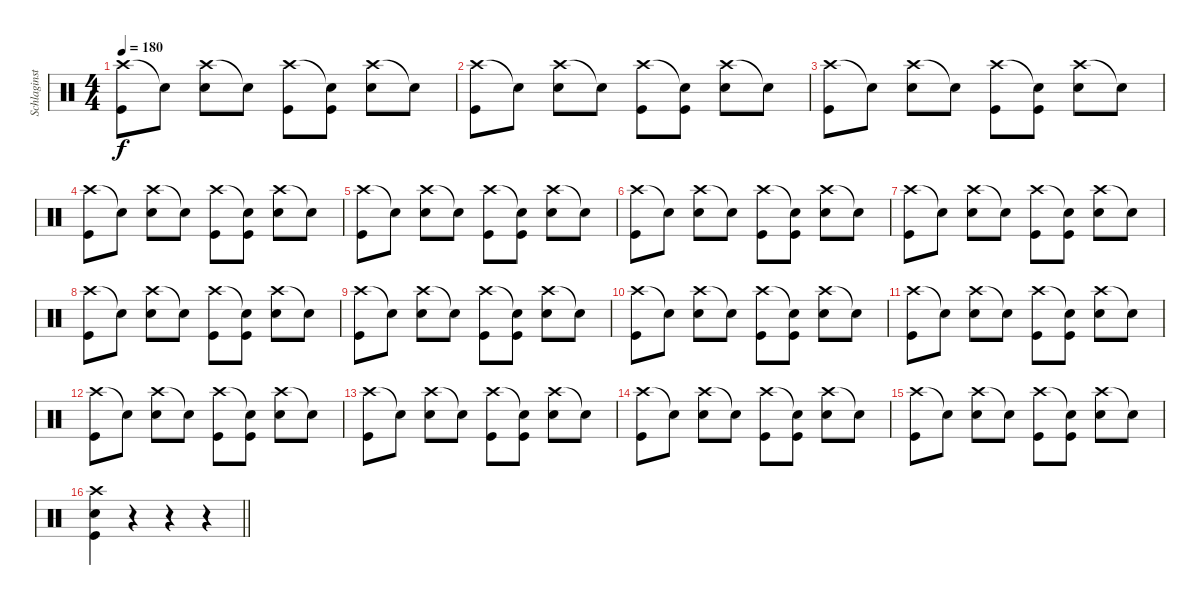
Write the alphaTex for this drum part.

\track ("Schlaginstrumente - Auswahl" "Schlaginst") {instrument percussion}
\staff {score}
\articulation defaults
\ts (4 4)
\tempo 180
\clef neutral
\ks c
("Crash high (hit)" "Kick (hit)").8{dy f} "Snare (hit)"{t}.8 ("Crash high (hit)" "Electric Snare (hit)").8 "Snare (hit)"{t}.8 ("Crash high (hit)" "Kick (hit)").8 ("Snare (hit)"{t} "Kick (hit)").8 ("Crash high (hit)" "Electric Snare (hit)").8 "Snare (hit)"{t}.8 |
("Crash high (hit)" "Kick (hit)").8 "Snare (hit)"{t}.8 ("Crash high (hit)" "Electric Snare (hit)").8 "Snare (hit)"{t}.8 ("Crash high (hit)" "Kick (hit)").8 ("Snare (hit)"{t} "Kick (hit)").8 ("Crash high (hit)" "Electric Snare (hit)").8 "Snare (hit)"{t}.8 |
("Crash high (hit)" "Kick (hit)").8 "Snare (hit)"{t}.8 ("Crash high (hit)" "Electric Snare (hit)").8 "Snare (hit)"{t}.8 ("Crash high (hit)" "Kick (hit)").8 ("Snare (hit)"{t} "Kick (hit)").8 ("Crash high (hit)" "Electric Snare (hit)").8 "Snare (hit)"{t}.8 |
("Crash high (hit)" "Kick (hit)").8 "Snare (hit)"{t}.8 ("Crash high (hit)" "Electric Snare (hit)").8 "Snare (hit)"{t}.8 ("Crash high (hit)" "Kick (hit)").8 ("Snare (hit)"{t} "Kick (hit)").8 ("Crash high (hit)" "Electric Snare (hit)").8 "Snare (hit)"{t}.8 |
("Crash high (hit)" "Kick (hit)").8 "Snare (hit)"{t}.8 ("Crash high (hit)" "Electric Snare (hit)").8 "Snare (hit)"{t}.8 ("Crash high (hit)" "Kick (hit)").8 ("Snare (hit)"{t} "Kick (hit)").8 ("Crash high (hit)" "Electric Snare (hit)").8 "Snare (hit)"{t}.8 |
("Crash high (hit)" "Kick (hit)").8 "Snare (hit)"{t}.8 ("Crash high (hit)" "Electric Snare (hit)").8 "Snare (hit)"{t}.8 ("Crash high (hit)" "Kick (hit)").8 ("Snare (hit)"{t} "Kick (hit)").8 ("Crash high (hit)" "Electric Snare (hit)").8 "Snare (hit)"{t}.8 |
("Crash high (hit)" "Kick (hit)").8 "Snare (hit)"{t}.8 ("Crash high (hit)" "Electric Snare (hit)").8 "Snare (hit)"{t}.8 ("Crash high (hit)" "Kick (hit)").8 ("Snare (hit)"{t} "Kick (hit)").8 ("Crash high (hit)" "Electric Snare (hit)").8 "Snare (hit)"{t}.8 |
("Crash high (hit)" "Kick (hit)").8 "Snare (hit)"{t}.8 ("Crash high (hit)" "Electric Snare (hit)").8 "Snare (hit)"{t}.8 ("Crash high (hit)" "Kick (hit)").8 ("Snare (hit)"{t} "Kick (hit)").8 ("Crash high (hit)" "Electric Snare (hit)").8 "Snare (hit)"{t}.8 |
("Crash high (hit)" "Kick (hit)").8 "Snare (hit)"{t}.8 ("Crash high (hit)" "Electric Snare (hit)").8 "Snare (hit)"{t}.8 ("Crash high (hit)" "Kick (hit)").8 ("Snare (hit)"{t} "Kick (hit)").8 ("Crash high (hit)" "Electric Snare (hit)").8 "Snare (hit)"{t}.8 |
("Crash high (hit)" "Kick (hit)").8 "Snare (hit)"{t}.8 ("Crash high (hit)" "Electric Snare (hit)").8 "Snare (hit)"{t}.8 ("Crash high (hit)" "Kick (hit)").8 ("Snare (hit)"{t} "Kick (hit)").8 ("Crash high (hit)" "Electric Snare (hit)").8 "Snare (hit)"{t}.8 |
("Crash high (hit)" "Kick (hit)").8 "Snare (hit)"{t}.8 ("Crash high (hit)" "Electric Snare (hit)").8 "Snare (hit)"{t}.8 ("Crash high (hit)" "Kick (hit)").8 ("Snare (hit)"{t} "Kick (hit)").8 ("Crash high (hit)" "Electric Snare (hit)").8 "Snare (hit)"{t}.8 |
("Crash high (hit)" "Kick (hit)").8 "Snare (hit)"{t}.8 ("Crash high (hit)" "Electric Snare (hit)").8 "Snare (hit)"{t}.8 ("Crash high (hit)" "Kick (hit)").8 ("Snare (hit)"{t} "Kick (hit)").8 ("Crash high (hit)" "Electric Snare (hit)").8 "Snare (hit)"{t}.8 |
("Crash high (hit)" "Kick (hit)").8 "Snare (hit)"{t}.8 ("Crash high (hit)" "Electric Snare (hit)").8 "Snare (hit)"{t}.8 ("Crash high (hit)" "Kick (hit)").8 ("Snare (hit)"{t} "Kick (hit)").8 ("Crash high (hit)" "Electric Snare (hit)").8 "Snare (hit)"{t}.8 |
("Crash high (hit)" "Kick (hit)").8 "Snare (hit)"{t}.8 ("Crash high (hit)" "Electric Snare (hit)").8 "Snare (hit)"{t}.8 ("Crash high (hit)" "Kick (hit)").8 ("Snare (hit)"{t} "Kick (hit)").8 ("Crash high (hit)" "Electric Snare (hit)").8 "Snare (hit)"{t}.8 |
("Crash high (hit)" "Kick (hit)").8 "Snare (hit)"{t}.8 ("Crash high (hit)" "Electric Snare (hit)").8 "Snare (hit)"{t}.8 ("Crash high (hit)" "Kick (hit)").8 ("Snare (hit)"{t} "Kick (hit)").8 ("Crash high (hit)" "Electric Snare (hit)").8 "Snare (hit)"{t}.8 |
\barLineRight lightlight
("Crash high (hit)" "Electric Snare (hit)" "Kick (hit)").4 r.4 r.4 r.4
